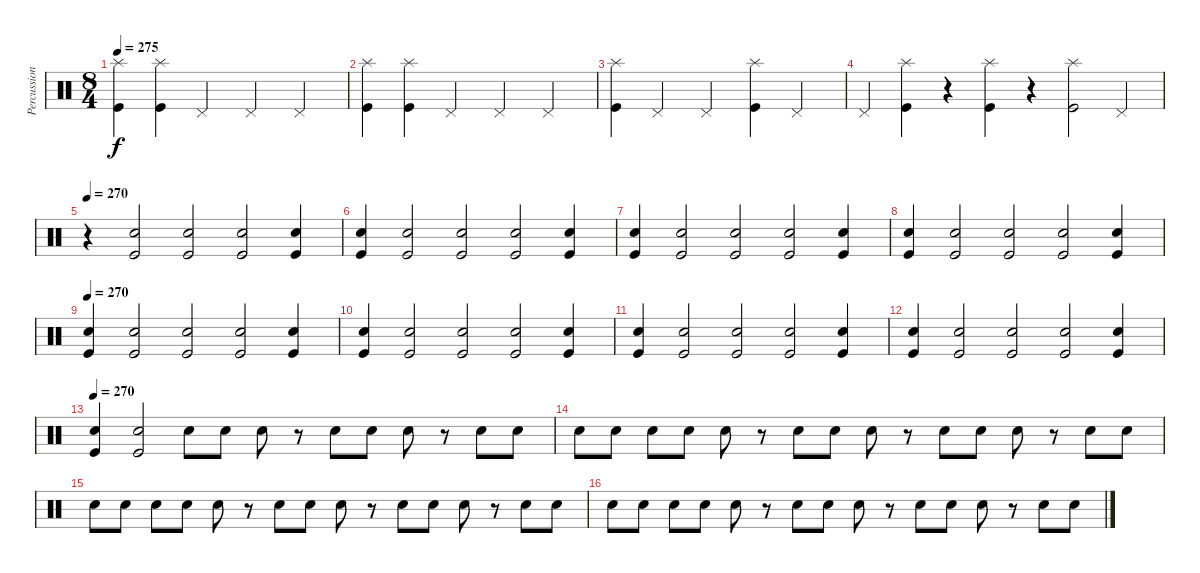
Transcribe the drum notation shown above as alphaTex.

\track ("Percussion" "Percussion") {instrument percussion}
\staff {score}
\articulation defaults
\ts (8 4)
\tempo 275
\clef neutral
\ks c
("Kick (hit)" "Splash (hit)").4{dy f} ("Kick (hit)" "Splash (hit)").4 "Pedal Hi-Hat (hit)".2 "Pedal Hi-Hat (hit)".2 "Pedal Hi-Hat (hit)".2 |
("Kick (hit)" "Splash (hit)").4 ("Kick (hit)" "Splash (hit)").4 "Pedal Hi-Hat (hit)".2 "Pedal Hi-Hat (hit)".2 "Pedal Hi-Hat (hit)".2 |
("Kick (hit)" "Splash (hit)").4 "Pedal Hi-Hat (hit)".2 "Pedal Hi-Hat (hit)".2 ("Kick (hit)" "Splash (hit)").4 "Pedal Hi-Hat (hit)".2 |
"Pedal Hi-Hat (hit)".4 ("Kick (hit)" "Splash (hit)").4 r.4 ("Kick (hit)" "Splash (hit)").4 r.4 ("Kick (hit)" "Splash (hit)").2 "Pedal Hi-Hat (hit)".4 |
\tempo 270
r.4 ("Kick (hit)" "Snare (hit) 2").2 ("Kick (hit)" "Snare (hit) 2").2 ("Kick (hit)" "Snare (hit) 2").2 ("Kick (hit)" "Snare (hit) 2").4 |
("Kick (hit)" "Snare (hit) 2").4 ("Kick (hit)" "Snare (hit) 2").2 ("Kick (hit)" "Snare (hit) 2").2 ("Kick (hit)" "Snare (hit) 2").2 ("Kick (hit)" "Snare (hit) 2").4 |
("Kick (hit)" "Snare (hit) 2").4 ("Kick (hit)" "Snare (hit) 2").2 ("Kick (hit)" "Snare (hit) 2").2 ("Kick (hit)" "Snare (hit) 2").2 ("Kick (hit)" "Snare (hit) 2").4 |
("Kick (hit)" "Snare (hit) 2").4 ("Kick (hit)" "Snare (hit) 2").2 ("Kick (hit)" "Snare (hit) 2").2 ("Kick (hit)" "Snare (hit) 2").2 ("Kick (hit)" "Snare (hit) 2").4 |
\tempo 270
("Kick (hit)" "Snare (hit) 2").4 ("Kick (hit)" "Snare (hit) 2").2 ("Kick (hit)" "Snare (hit) 2").2 ("Kick (hit)" "Snare (hit) 2").2 ("Kick (hit)" "Snare (hit) 2").4 |
("Kick (hit)" "Snare (hit) 2").4 ("Kick (hit)" "Snare (hit) 2").2 ("Kick (hit)" "Snare (hit) 2").2 ("Kick (hit)" "Snare (hit) 2").2 ("Kick (hit)" "Snare (hit) 2").4 |
("Kick (hit)" "Snare (hit) 2").4 ("Kick (hit)" "Snare (hit) 2").2 ("Kick (hit)" "Snare (hit) 2").2 ("Kick (hit)" "Snare (hit) 2").2 ("Kick (hit)" "Snare (hit) 2").4 |
("Kick (hit)" "Snare (hit) 2").4 ("Kick (hit)" "Snare (hit) 2").2 ("Kick (hit)" "Snare (hit) 2").2 ("Kick (hit)" "Snare (hit) 2").2 ("Kick (hit)" "Snare (hit) 2").4 |
\tempo 270
("Kick (hit)" "Snare (hit) 2").4 ("Kick (hit)" "Snare (hit) 2").2 "Snare (hit) 2".8 "Snare (hit) 2".8 "Snare (hit) 2".8 r.8 "Snare (hit) 2".8 "Snare (hit) 2".8 "Snare (hit) 2".8 r.8 "Snare (hit) 2".8 "Snare (hit) 2".8 |
"Snare (hit) 2".8 "Snare (hit) 2".8 "Snare (hit) 2".8 "Snare (hit) 2".8 "Snare (hit) 2".8 r.8 "Snare (hit) 2".8 "Snare (hit) 2".8 "Snare (hit) 2".8 r.8 "Snare (hit) 2".8 "Snare (hit) 2".8 "Snare (hit) 2".8 r.8 "Snare (hit) 2".8 "Snare (hit) 2".8 |
"Snare (hit) 2".8 "Snare (hit) 2".8 "Snare (hit) 2".8 "Snare (hit) 2".8 "Snare (hit) 2".8 r.8 "Snare (hit) 2".8 "Snare (hit) 2".8 "Snare (hit) 2".8 r.8 "Snare (hit) 2".8 "Snare (hit) 2".8 "Snare (hit) 2".8 r.8 "Snare (hit) 2".8 "Snare (hit) 2".8 |
"Snare (hit) 2".8 "Snare (hit) 2".8 "Snare (hit) 2".8 "Snare (hit) 2".8 "Snare (hit) 2".8 r.8 "Snare (hit) 2".8 "Snare (hit) 2".8 "Snare (hit) 2".8 r.8 "Snare (hit) 2".8 "Snare (hit) 2".8 "Snare (hit) 2".8 r.8 "Snare (hit) 2".8 "Snare (hit) 2".8
